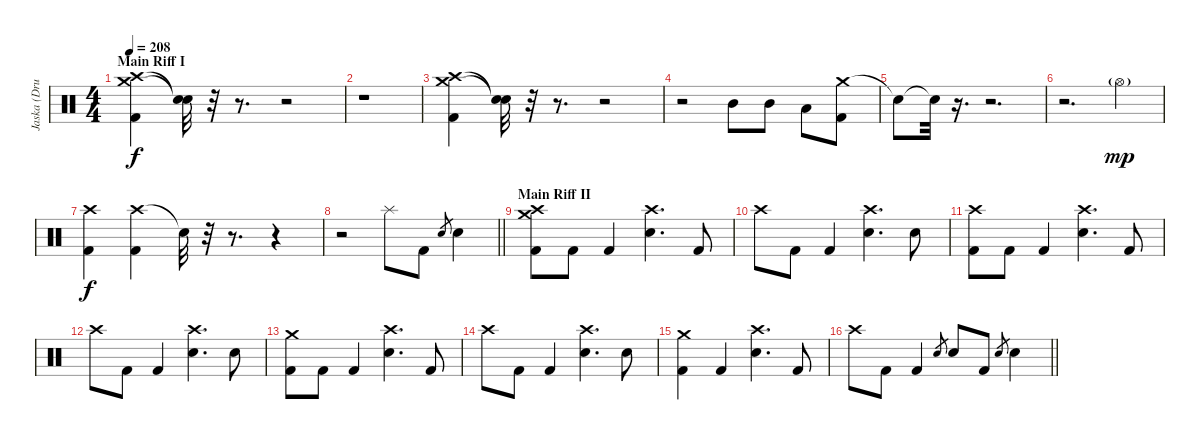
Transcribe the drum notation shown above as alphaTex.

\track ("Jaska (Drums)" "Jaska (Dru") {instrument percussion}
\staff {score}
\articulation defaults
\ts (4 4)
\section ("" "Main Riff I")
\tempo 208
\clef neutral
\ks c
("Crash medium (hit)" "Crash high (hit)" "Kick (hit) 2").4{dy f} ("Snare (hit)"{t} "Snare (hit)"{t}).32 r.32{volume 0} r.8{d} r.2 |
r.1 |
("Crash medium (hit)" "Crash high (hit)" "Kick (hit) 2").4{volume 16} ("Snare (hit)"{t} "Snare (hit)"{t}).32 r.32{volume 0} r.8{d} r.2 |
r.2 "Mid Tom (hit)".8{volume 16} "Mid Tom (hit)".8 "Low Tom (hit)".8 ("Crash medium (hit)" "Kick (hit) 2").8 |
"Snare (hit)"{t}.8 "Snare (hit)"{t}.32 r.16{d volume 0} r.2{d} |
r.2{d} "Hi-Hat (open)"{g}.4{dy mp volume 16} |
("Crash high (hit)" "Kick (hit) 2").4{dy f} ("Crash high (hit)" "Kick (hit) 2").4 "Snare (hit)"{t}.32 r.32{volume 0} r.8{d} r.4 |
\barLineRight lightlight
r.2 "Splash (hit)".8{volume 16} "Kick (hit) 2".8 "Electric Snare (hit)".8{gr} "Electric Snare (hit)".4 |
\section ("" "Main Riff II")
("Crash medium (hit)" "Crash high (hit)" "Kick (hit) 2").8 "Kick (hit) 2".8 "Kick (hit) 2".4 ("Crash high (hit)" "Electric Snare (hit)").4{d} "Kick (hit) 2".8 |
"Crash high (hit)".8 "Kick (hit) 2".8 "Kick (hit) 2".4 ("Crash high (hit)" "Electric Snare (hit)").4{d} "Electric Snare (hit)".8 |
("Crash high (hit)" "Kick (hit) 2").8 "Kick (hit) 2".8 "Kick (hit) 2".4 ("Crash high (hit)" "Electric Snare (hit)").4{d} "Kick (hit) 2".8 |
"Crash high (hit)".8 "Kick (hit) 2".8 "Kick (hit) 2".4 ("Crash high (hit)" "Electric Snare (hit)").4{d} "Electric Snare (hit)".8 |
("Crash medium (hit)" "Kick (hit) 2").8 "Kick (hit) 2".8 "Kick (hit) 2".4 ("Crash high (hit)" "Electric Snare (hit)").4{d} "Kick (hit) 2".8 |
"Crash high (hit)".8 "Kick (hit) 2".8 "Kick (hit) 2".4 ("Crash high (hit)" "Electric Snare (hit)").4{d} "Electric Snare (hit)".8 |
("Crash medium (hit)" "Kick (hit) 2").4 "Kick (hit) 2".4 ("Crash high (hit)" "Electric Snare (hit)").4{d} "Kick (hit) 2".8 |
\barLineRight lightlight "Crash high (hit)".8 "Kick (hit) 2".8 "Kick (hit) 2".4 "Electric Snare (hit)".8{gr} "Electric Snare (hit)".8 "Kick (hit) 2".8 "Electric Snare (hit)".8{gr} "Electric Snare (hit)".4
